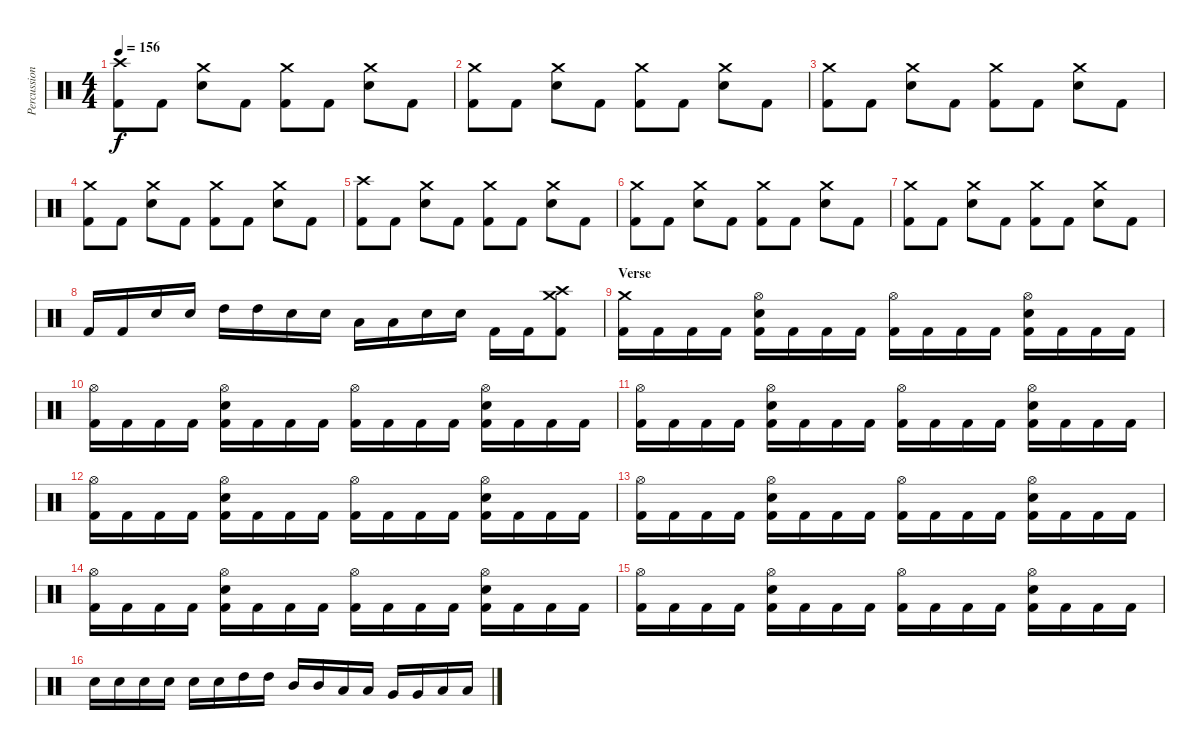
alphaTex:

\track ("Percussion" "Percussion") {instrument percussion}
\staff {score}
\articulation defaults
\ts (4 4)
\tempo 156
\clef neutral
\ks c
("Crash high (hit)" "Kick (hit) 2").8{dy f} "Kick (hit) 2".8 ("Crash medium (hit)" "Electric Snare (hit)").8 "Kick (hit) 2".8 ("Crash medium (hit)" "Kick (hit) 2").8 "Kick (hit) 2".8 ("Crash medium (hit)" "Electric Snare (hit)").8 "Kick (hit) 2".8 |
("Crash medium (hit)" "Kick (hit) 2").8 "Kick (hit) 2".8 ("Crash medium (hit)" "Electric Snare (hit)").8 "Kick (hit) 2".8 ("Crash medium (hit)" "Kick (hit) 2").8 "Kick (hit) 2".8 ("Crash medium (hit)" "Electric Snare (hit)").8 "Kick (hit) 2".8 |
("Crash medium (hit)" "Kick (hit) 2").8 "Kick (hit) 2".8 ("Crash medium (hit)" "Electric Snare (hit)").8 "Kick (hit) 2".8 ("Crash medium (hit)" "Kick (hit) 2").8 "Kick (hit) 2".8 ("Crash medium (hit)" "Electric Snare (hit)").8 "Kick (hit) 2".8 |
("Crash medium (hit)" "Kick (hit) 2").8 "Kick (hit) 2".8 ("Crash medium (hit)" "Electric Snare (hit)").8 "Kick (hit) 2".8 ("Crash medium (hit)" "Kick (hit) 2").8 "Kick (hit) 2".8 ("Crash medium (hit)" "Electric Snare (hit)").8 "Kick (hit) 2".8 |
("Crash high (hit)" "Kick (hit) 2").8 "Kick (hit) 2".8 ("Crash medium (hit)" "Electric Snare (hit)").8 "Kick (hit) 2".8 ("Crash medium (hit)" "Kick (hit) 2").8 "Kick (hit) 2".8 ("Crash medium (hit)" "Electric Snare (hit)").8 "Kick (hit) 2".8 |
("Crash medium (hit)" "Kick (hit) 2").8 "Kick (hit) 2".8 ("Crash medium (hit)" "Electric Snare (hit)").8 "Kick (hit) 2".8 ("Crash medium (hit)" "Kick (hit) 2").8 "Kick (hit) 2".8 ("Crash medium (hit)" "Electric Snare (hit)").8 "Kick (hit) 2".8 |
("Crash medium (hit)" "Kick (hit) 2").8 "Kick (hit) 2".8 ("Crash medium (hit)" "Electric Snare (hit)").8 "Kick (hit) 2".8 ("Crash medium (hit)" "Kick (hit) 2").8 "Kick (hit) 2".8 ("Crash medium (hit)" "Electric Snare (hit)").8 "Kick (hit) 2".8 |
"Kick (hit) 2".16 "Kick (hit) 2".16 "Electric Snare (hit)".16 "Electric Snare (hit)".16 "High Tom (hit)".16 "High Tom (hit)".16 "Electric Snare (hit)".16 "Electric Snare (hit)".16 "Low Tom (hit)".16 "Low Tom (hit)".16 "Electric Snare (hit)".16 "Electric Snare (hit)".16 "Kick (hit) 2".16 "Kick (hit) 2".16 ("Crash high (hit)" "Crash medium (hit)" "Kick (hit) 2").8 |
\section ("" "Verse")
("Crash medium (hit)" "Kick (hit) 2").16 "Kick (hit) 2".16 "Kick (hit) 2".16 "Kick (hit) 2".16 ("Hi-Hat (open)" "Electric Snare (hit)" "Kick (hit) 2").16 "Kick (hit) 2".16 "Kick (hit) 2".16 "Kick (hit) 2".16 ("Hi-Hat (open)" "Kick (hit) 2").16 "Kick (hit) 2".16 "Kick (hit) 2".16 "Kick (hit) 2".16 ("Hi-Hat (open)" "Electric Snare (hit)" "Kick (hit) 2").16 "Kick (hit) 2".16 "Kick (hit) 2".16 "Kick (hit) 2".16 |
("Hi-Hat (open)" "Kick (hit) 2").16 "Kick (hit) 2".16 "Kick (hit) 2".16 "Kick (hit) 2".16 ("Hi-Hat (open)" "Electric Snare (hit)" "Kick (hit) 2").16 "Kick (hit) 2".16 "Kick (hit) 2".16 "Kick (hit) 2".16 ("Hi-Hat (open)" "Kick (hit) 2").16 "Kick (hit) 2".16 "Kick (hit) 2".16 "Kick (hit) 2".16 ("Hi-Hat (open)" "Electric Snare (hit)" "Kick (hit) 2").16 "Kick (hit) 2".16 "Kick (hit) 2".16 "Kick (hit) 2".16 |
("Hi-Hat (open)" "Kick (hit) 2").16 "Kick (hit) 2".16 "Kick (hit) 2".16 "Kick (hit) 2".16 ("Hi-Hat (open)" "Electric Snare (hit)" "Kick (hit) 2").16 "Kick (hit) 2".16 "Kick (hit) 2".16 "Kick (hit) 2".16 ("Hi-Hat (open)" "Kick (hit) 2").16 "Kick (hit) 2".16 "Kick (hit) 2".16 "Kick (hit) 2".16 ("Hi-Hat (open)" "Electric Snare (hit)" "Kick (hit) 2").16 "Kick (hit) 2".16 "Kick (hit) 2".16 "Kick (hit) 2".16 |
("Hi-Hat (open)" "Kick (hit) 2").16 "Kick (hit) 2".16 "Kick (hit) 2".16 "Kick (hit) 2".16 ("Hi-Hat (open)" "Electric Snare (hit)" "Kick (hit) 2").16 "Kick (hit) 2".16 "Kick (hit) 2".16 "Kick (hit) 2".16 ("Hi-Hat (open)" "Kick (hit) 2").16 "Kick (hit) 2".16 "Kick (hit) 2".16 "Kick (hit) 2".16 ("Hi-Hat (open)" "Electric Snare (hit)" "Kick (hit) 2").16 "Kick (hit) 2".16 "Kick (hit) 2".16 "Kick (hit) 2".16 |
("Hi-Hat (open)" "Kick (hit) 2").16 "Kick (hit) 2".16 "Kick (hit) 2".16 "Kick (hit) 2".16 ("Hi-Hat (open)" "Electric Snare (hit)" "Kick (hit) 2").16 "Kick (hit) 2".16 "Kick (hit) 2".16 "Kick (hit) 2".16 ("Hi-Hat (open)" "Kick (hit) 2").16 "Kick (hit) 2".16 "Kick (hit) 2".16 "Kick (hit) 2".16 ("Hi-Hat (open)" "Electric Snare (hit)" "Kick (hit) 2").16 "Kick (hit) 2".16 "Kick (hit) 2".16 "Kick (hit) 2".16 |
("Hi-Hat (open)" "Kick (hit) 2").16 "Kick (hit) 2".16 "Kick (hit) 2".16 "Kick (hit) 2".16 ("Hi-Hat (open)" "Electric Snare (hit)" "Kick (hit) 2").16 "Kick (hit) 2".16 "Kick (hit) 2".16 "Kick (hit) 2".16 ("Hi-Hat (open)" "Kick (hit) 2").16 "Kick (hit) 2".16 "Kick (hit) 2".16 "Kick (hit) 2".16 ("Hi-Hat (open)" "Electric Snare (hit)" "Kick (hit) 2").16 "Kick (hit) 2".16 "Kick (hit) 2".16 "Kick (hit) 2".16 |
("Hi-Hat (open)" "Kick (hit) 2").16 "Kick (hit) 2".16 "Kick (hit) 2".16 "Kick (hit) 2".16 ("Hi-Hat (open)" "Electric Snare (hit)" "Kick (hit) 2").16 "Kick (hit) 2".16 "Kick (hit) 2".16 "Kick (hit) 2".16 ("Hi-Hat (open)" "Kick (hit) 2").16 "Kick (hit) 2".16 "Kick (hit) 2".16 "Kick (hit) 2".16 ("Hi-Hat (open)" "Electric Snare (hit)" "Kick (hit) 2").16 "Kick (hit) 2".16 "Kick (hit) 2".16 "Kick (hit) 2".16 |
"Electric Snare (hit)".16 "Electric Snare (hit)".16 "Electric Snare (hit)".16 "Electric Snare (hit)".16 "Electric Snare (hit)".16 "Electric Snare (hit)".16 "High Tom (hit)".16 "High Tom (hit)".16 "Mid Tom (hit)".16 "Mid Tom (hit)".16 "Low Tom (hit)".16 "Low Tom (hit)".16 "Very Low Tom (hit)".16 "Very Low Tom (hit)".16 "Low Floor Tom (hit)".16 "Low Floor Tom (hit)".16
